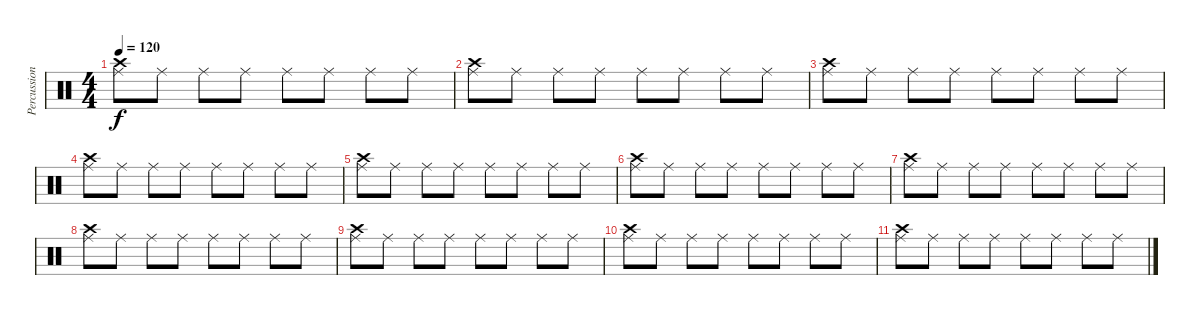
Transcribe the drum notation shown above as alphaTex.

\track ("Percussions" "Percussion") {instrument percussion}
\staff {score}
\articulation defaults
\ts (4 4)
\tempo 120
\clef neutral
\ks c
("Ride (middle)" "Crash high (hit)").8{dy f} "Ride (middle)".8 "Ride (middle)".8 "Ride (middle)".8 "Ride (middle)".8 "Ride (middle)".8 "Ride (middle)".8 "Ride (middle)".8 |
("Ride (middle)" "Crash high (hit)").8 "Ride (middle)".8 "Ride (middle)".8 "Ride (middle)".8 "Ride (middle)".8 "Ride (middle)".8 "Ride (middle)".8 "Ride (middle)".8 |
("Ride (middle)" "Crash high (hit)").8 "Ride (middle)".8 "Ride (middle)".8 "Ride (middle)".8 "Ride (middle)".8 "Ride (middle)".8 "Ride (middle)".8 "Ride (middle)".8 |
("Ride (middle)" "Crash high (hit)").8 "Ride (middle)".8 "Ride (middle)".8 "Ride (middle)".8 "Ride (middle)".8 "Ride (middle)".8 "Ride (middle)".8 "Ride (middle)".8 |
("Ride (middle)" "Crash high (hit)").8 "Ride (middle)".8 "Ride (middle)".8 "Ride (middle)".8 "Ride (middle)".8 "Ride (middle)".8 "Ride (middle)".8 "Ride (middle)".8 |
("Ride (middle)" "Crash high (hit)").8 "Ride (middle)".8 "Ride (middle)".8 "Ride (middle)".8 "Ride (middle)".8 "Ride (middle)".8 "Ride (middle)".8 "Ride (middle)".8 |
("Ride (middle)" "Crash high (hit)").8 "Ride (middle)".8 "Ride (middle)".8 "Ride (middle)".8 "Ride (middle)".8 "Ride (middle)".8 "Ride (middle)".8 "Ride (middle)".8 |
("Ride (middle)" "Crash high (hit)").8 "Ride (middle)".8 "Ride (middle)".8 "Ride (middle)".8 "Ride (middle)".8 "Ride (middle)".8 "Ride (middle)".8 "Ride (middle)".8 |
("Ride (middle)" "Crash high (hit)").8 "Ride (middle)".8 "Ride (middle)".8 "Ride (middle)".8 "Ride (middle)".8 "Ride (middle)".8 "Ride (middle)".8 "Ride (middle)".8 |
("Ride (middle)" "Crash high (hit)").8 "Ride (middle)".8 "Ride (middle)".8 "Ride (middle)".8 "Ride (middle)".8 "Ride (middle)".8 "Ride (middle)".8 "Ride (middle)".8 |
("Ride (middle)" "Crash high (hit)").8 "Ride (middle)".8 "Ride (middle)".8 "Ride (middle)".8 "Ride (middle)".8 "Ride (middle)".8 "Ride (middle)".8 "Ride (middle)".8
